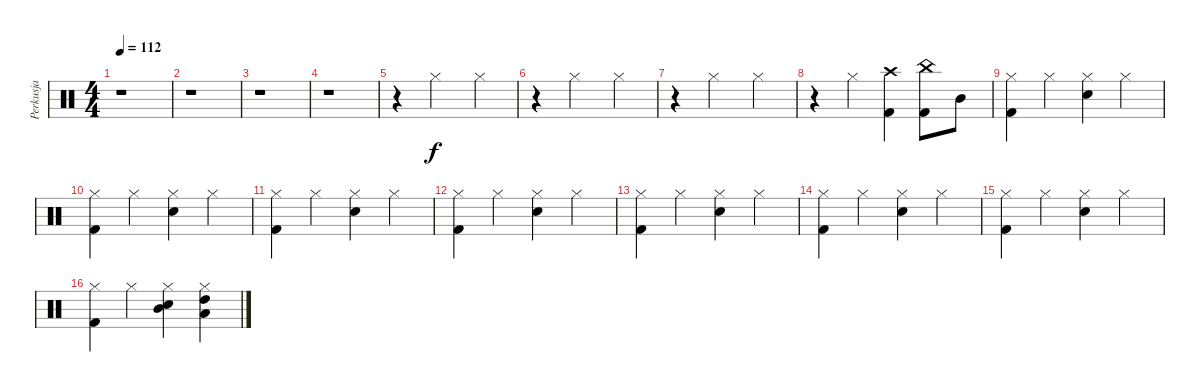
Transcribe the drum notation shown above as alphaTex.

\track ("Perkusja" "Perkusja") {instrument percussion}
\staff {score}
\articulation defaults
\ts (4 4)
\tempo 112
\clef neutral
\ks c
r.1{dy f} |
r.1 |
r.1 |
r.1 |
r.4 "Hi-Hat (closed)".2 "Hi-Hat (closed)".4 |
r.4 "Hi-Hat (closed)".2 "Hi-Hat (closed)".4 |
r.4 "Hi-Hat (closed)".2 "Hi-Hat (closed)".4 |
r.4 "Hi-Hat (closed)".4 ("Kick (hit) 2" "Crash high (hit)").4 ("Kick (hit) 2" "China (hit)").8 "Mid Tom (hit)".8 |
("Kick (hit) 2" "Hi-Hat (closed)").4 "Hi-Hat (closed)".4 ("Snare (hit) 2" "Hi-Hat (closed)").4 "Hi-Hat (closed)".4 |
("Kick (hit) 2" "Hi-Hat (closed)").4 "Hi-Hat (closed)".4 ("Snare (hit) 2" "Hi-Hat (closed)").4 "Hi-Hat (closed)".4 |
("Kick (hit) 2" "Hi-Hat (closed)").4 "Hi-Hat (closed)".4 ("Snare (hit) 2" "Hi-Hat (closed)").4 "Hi-Hat (closed)".4 |
("Kick (hit) 2" "Hi-Hat (closed)").4 "Hi-Hat (closed)".4 ("Snare (hit) 2" "Hi-Hat (closed)").4 "Hi-Hat (closed)".4 |
("Kick (hit) 2" "Hi-Hat (closed)").4 "Hi-Hat (closed)".4 ("Snare (hit) 2" "Hi-Hat (closed)").4 "Hi-Hat (closed)".4 |
("Kick (hit) 2" "Hi-Hat (closed)").4 "Hi-Hat (closed)".4 ("Snare (hit) 2" "Hi-Hat (closed)").4 "Hi-Hat (closed)".4 |
("Kick (hit) 2" "Hi-Hat (closed)").4 "Hi-Hat (closed)".4 ("Snare (hit) 2" "Hi-Hat (closed)").4 "Hi-Hat (closed)".4 |
("Kick (hit) 2" "Hi-Hat (closed)").4 "Hi-Hat (closed)".4 ("Snare (hit) 2" "Mid Tom (hit)" "Hi-Hat (closed)").4 ("High Tom (hit)" "Low Tom (hit)" "Hi-Hat (closed)").4
